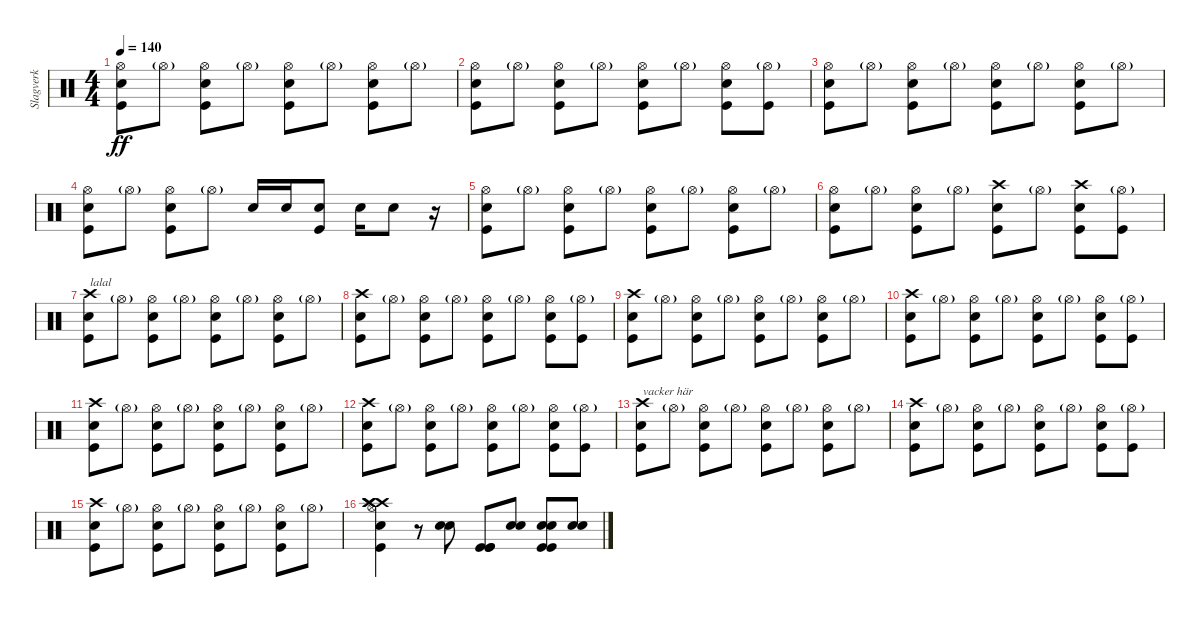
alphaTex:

\track ("Slagverk" "Slagverk") {instrument percussion}
\staff {score}
\articulation defaults
\ts (4 4)
\tempo 140
\clef neutral
\ks c
("Hi-Hat (open)" "Kick (hit)" "Snare (hit) 2").8{dy ff} "Hi-Hat (open)"{g}.8 ("Hi-Hat (open)" "Kick (hit)" "Snare (hit) 2").8 "Hi-Hat (open)"{g}.8 ("Hi-Hat (open)" "Kick (hit)" "Snare (hit) 2").8 "Hi-Hat (open)"{g}.8 ("Hi-Hat (open)" "Kick (hit)" "Snare (hit) 2").8 "Hi-Hat (open)"{g}.8 |
("Hi-Hat (open)" "Kick (hit)" "Snare (hit) 2").8 "Hi-Hat (open)"{g}.8 ("Hi-Hat (open)" "Kick (hit)" "Snare (hit) 2").8 "Hi-Hat (open)"{g}.8 ("Hi-Hat (open)" "Kick (hit)" "Snare (hit) 2").8 "Hi-Hat (open)"{g}.8 ("Hi-Hat (open)" "Kick (hit)" "Snare (hit) 2").8 ("Hi-Hat (open)"{g} "Kick (hit)").8 |
("Hi-Hat (open)" "Kick (hit)" "Snare (hit) 2").8 "Hi-Hat (open)"{g}.8 ("Hi-Hat (open)" "Kick (hit)" "Snare (hit) 2").8 "Hi-Hat (open)"{g}.8 ("Hi-Hat (open)" "Kick (hit)" "Snare (hit) 2").8 "Hi-Hat (open)"{g}.8 ("Hi-Hat (open)" "Kick (hit)" "Snare (hit) 2").8 "Hi-Hat (open)"{g}.8 |
("Hi-Hat (open)" "Kick (hit)" "Snare (hit) 2").8 "Hi-Hat (open)"{g}.8 ("Hi-Hat (open)" "Kick (hit)" "Snare (hit) 2").8 "Hi-Hat (open)"{g}.8 "Snare (hit) 2".16 "Snare (hit) 2".16 ("Snare (hit) 2" "Kick (hit)").8 "Snare (hit) 2".16 "Snare (hit) 2".8 r.16 |
("Hi-Hat (open)" "Kick (hit)" "Snare (hit) 2").8 "Hi-Hat (open)"{g}.8 ("Hi-Hat (open)" "Kick (hit)" "Snare (hit) 2").8 "Hi-Hat (open)"{g}.8 ("Hi-Hat (open)" "Kick (hit)" "Snare (hit) 2").8 "Hi-Hat (open)"{g}.8 ("Hi-Hat (open)" "Kick (hit)" "Snare (hit) 2").8 "Hi-Hat (open)"{g}.8 |
("Hi-Hat (open)" "Kick (hit)" "Snare (hit) 2").8 "Hi-Hat (open)"{g}.8 ("Hi-Hat (open)" "Kick (hit)" "Snare (hit) 2").8 "Hi-Hat (open)"{g}.8 ("Crash high (hit)" "Kick (hit)" "Snare (hit) 2").8 "Hi-Hat (open)"{g}.8 ("Crash high (hit)" "Kick (hit)" "Snare (hit) 2").8 ("Hi-Hat (open)"{g} "Kick (hit)").8 |
("Crash high (hit)" "Kick (hit)" "Snare (hit) 2").8{txt "lalal"} "Hi-Hat (open)"{g}.8 ("Hi-Hat (open)" "Kick (hit)" "Snare (hit) 2").8 "Hi-Hat (open)"{g}.8 ("Hi-Hat (open)" "Kick (hit)" "Snare (hit) 2").8 "Hi-Hat (open)"{g}.8 ("Hi-Hat (open)" "Kick (hit)" "Snare (hit) 2").8 "Hi-Hat (open)"{g}.8 |
("Crash high (hit)" "Kick (hit)" "Snare (hit) 2").8 "Hi-Hat (open)"{g}.8 ("Hi-Hat (open)" "Kick (hit)" "Snare (hit) 2").8 "Hi-Hat (open)"{g}.8 ("Hi-Hat (open)" "Kick (hit)" "Snare (hit) 2").8 "Hi-Hat (open)"{g}.8 ("Hi-Hat (open)" "Kick (hit)" "Snare (hit) 2").8 ("Hi-Hat (open)"{g} "Kick (hit)").8 |
("Crash high (hit)" "Kick (hit)" "Snare (hit) 2").8 "Hi-Hat (open)"{g}.8 ("Hi-Hat (open)" "Kick (hit)" "Snare (hit) 2").8 "Hi-Hat (open)"{g}.8 ("Hi-Hat (open)" "Kick (hit)" "Snare (hit) 2").8 "Hi-Hat (open)"{g}.8 ("Hi-Hat (open)" "Kick (hit)" "Snare (hit) 2").8 "Hi-Hat (open)"{g}.8 |
("Crash high (hit)" "Kick (hit)" "Snare (hit) 2").8 "Hi-Hat (open)"{g}.8 ("Hi-Hat (open)" "Kick (hit)" "Snare (hit) 2").8 "Hi-Hat (open)"{g}.8 ("Hi-Hat (open)" "Kick (hit)" "Snare (hit) 2").8 "Hi-Hat (open)"{g}.8 ("Hi-Hat (open)" "Kick (hit)" "Snare (hit) 2").8 ("Hi-Hat (open)"{g} "Kick (hit)").8 |
("Crash high (hit)" "Kick (hit)" "Snare (hit) 2").8 "Hi-Hat (open)"{g}.8 ("Hi-Hat (open)" "Kick (hit)" "Snare (hit) 2").8 "Hi-Hat (open)"{g}.8 ("Hi-Hat (open)" "Kick (hit)" "Snare (hit) 2").8 "Hi-Hat (open)"{g}.8 ("Hi-Hat (open)" "Kick (hit)" "Snare (hit) 2").8 "Hi-Hat (open)"{g}.8 |
("Crash high (hit)" "Kick (hit)" "Snare (hit) 2").8 "Hi-Hat (open)"{g}.8 ("Hi-Hat (open)" "Kick (hit)" "Snare (hit) 2").8 "Hi-Hat (open)"{g}.8 ("Hi-Hat (open)" "Kick (hit)" "Snare (hit) 2").8 "Hi-Hat (open)"{g}.8 ("Hi-Hat (open)" "Kick (hit)" "Snare (hit) 2").8 ("Hi-Hat (open)"{g} "Kick (hit)").8 |
("Crash high (hit)" "Kick (hit)" "Snare (hit) 2").8{txt "vacker här"} "Hi-Hat (open)"{g}.8 ("Hi-Hat (open)" "Kick (hit)" "Snare (hit) 2").8 "Hi-Hat (open)"{g}.8 ("Hi-Hat (open)" "Kick (hit)" "Snare (hit) 2").8 "Hi-Hat (open)"{g}.8 ("Hi-Hat (open)" "Kick (hit)" "Snare (hit) 2").8 "Hi-Hat (open)"{g}.8 |
("Crash high (hit)" "Kick (hit)" "Snare (hit) 2").8 "Hi-Hat (open)"{g}.8 ("Hi-Hat (open)" "Kick (hit)" "Snare (hit) 2").8 "Hi-Hat (open)"{g}.8 ("Hi-Hat (open)" "Kick (hit)" "Snare (hit) 2").8 "Hi-Hat (open)"{g}.8 ("Hi-Hat (open)" "Kick (hit)" "Snare (hit) 2").8 ("Hi-Hat (open)"{g} "Kick (hit)").8 |
("Crash high (hit)" "Kick (hit)" "Snare (hit) 2").8 "Hi-Hat (open)"{g}.8 ("Hi-Hat (open)" "Kick (hit)" "Snare (hit) 2").8 "Hi-Hat (open)"{g}.8 ("Hi-Hat (open)" "Kick (hit)" "Snare (hit) 2").8 "Hi-Hat (open)"{g}.8 ("Hi-Hat (open)" "Kick (hit)" "Snare (hit) 2").8 "Hi-Hat (open)"{g}.8 |
("Crash high (hit)" "Kick (hit)" "Snare (hit) 2" "Hi-Hat (open)" "Crash high (hit)" "Crash high (hit)").4 r.8 ("Snare (hit) 2" "Snare (hit) 2").8 ("Kick (hit)" "Kick (hit)" "Kick (hit)").8 ("Snare (hit) 2" "Snare (hit) 2").8 ("Kick (hit)" "Snare (hit) 2" "Kick (hit)" "Snare (hit) 2").8 ("Snare (hit) 2" "Snare (hit) 2").8
